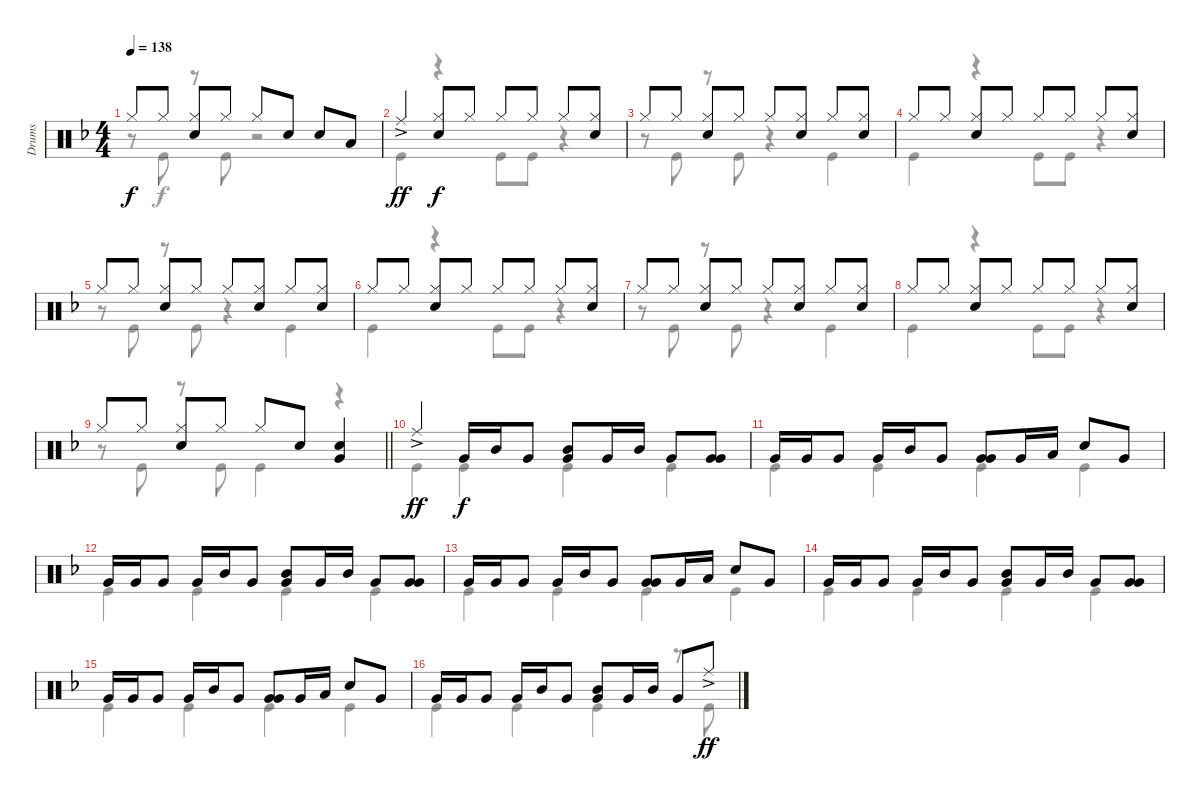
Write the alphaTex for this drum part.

\track ("Drums" "Drums") {instrument percussion}
\staff {score}
\articulation defaults
\voice
\ts (4 4)
\tempo 138
\clef neutral
\ks f "Hi-Hat (closed)".8{dy f} "Hi-Hat (closed)".8
("Hi-Hat (closed)" "Snare (hit) 2").8 "Hi-Hat (closed)".8 "Hi-Hat (closed)".8 "Snare (hit) 2".8 "Snare (hit) 2".8 "Low Tom (hit)".8 |
"Ride (middle)"{ac}.4{dy ff} ("Hi-Hat (closed)" "Snare (hit) 2").8{dy f} "Hi-Hat (closed)".8 "Hi-Hat (closed)".8 "Hi-Hat (closed)".8 "Hi-Hat (closed)".8 ("Hi-Hat (closed)" "Snare (hit) 2").8 |
"Hi-Hat (closed)".8 "Hi-Hat (closed)".8 ("Hi-Hat (closed)" "Snare (hit) 2").8 "Hi-Hat (closed)".8 "Hi-Hat (closed)".8 ("Hi-Hat (closed)" "Snare (hit) 2").8 "Hi-Hat (closed)".8 ("Hi-Hat (closed)" "Snare (hit) 2").8 |
"Hi-Hat (closed)".8 "Hi-Hat (closed)".8 ("Hi-Hat (closed)" "Snare (hit) 2").8 "Hi-Hat (closed)".8 "Hi-Hat (closed)".8 "Hi-Hat (closed)".8 "Hi-Hat (closed)".8 ("Hi-Hat (closed)" "Snare (hit) 2").8 |
"Hi-Hat (closed)".8 "Hi-Hat (closed)".8 ("Hi-Hat (closed)" "Snare (hit) 2").8 "Hi-Hat (closed)".8 "Hi-Hat (closed)".8 ("Hi-Hat (closed)" "Snare (hit) 2").8 "Hi-Hat (closed)".8 ("Hi-Hat (closed)" "Snare (hit) 2").8 |
"Hi-Hat (closed)".8 "Hi-Hat (closed)".8 ("Hi-Hat (closed)" "Snare (hit) 2").8 "Hi-Hat (closed)".8 "Hi-Hat (closed)".8 "Hi-Hat (closed)".8 "Hi-Hat (closed)".8 ("Hi-Hat (closed)" "Snare (hit) 2").8 |
"Hi-Hat (closed)".8 "Hi-Hat (closed)".8 ("Hi-Hat (closed)" "Snare (hit) 2").8 "Hi-Hat (closed)".8 "Hi-Hat (closed)".8 ("Hi-Hat (closed)" "Snare (hit) 2").8 "Hi-Hat (closed)".8 ("Hi-Hat (closed)" "Snare (hit) 2").8 |
"Hi-Hat (closed)".8 "Hi-Hat (closed)".8 ("Hi-Hat (closed)" "Snare (hit) 2").8 "Hi-Hat (closed)".8 "Hi-Hat (closed)".8 "Hi-Hat (closed)".8 "Hi-Hat (closed)".8 ("Hi-Hat (closed)" "Snare (hit) 2").8 |
\barLineRight lightlight "Hi-Hat (closed)".8 "Hi-Hat (closed)".8
("Hi-Hat (closed)" "Snare (hit) 2").8 "Hi-Hat (closed)".8 "Hi-Hat (closed)".8 "Snare (hit) 2".8 ("Snare (hit) 2" "Very Low Tom (hit)").4 |
"Ride (middle)"{ac}.4{dy ff} "Very Low Tom (hit)".16{dy f} "Mid Tom (hit)".16 "Very Low Tom (hit)".8 ("Mid Tom (hit)" "Very Low Tom (hit)").8 "Very Low Tom (hit)".16 "Mid Tom (hit)".16 "Very Low Tom (hit)".8 ("Very Low Tom (hit)" "Very Low Tom (hit)").8 |
"Very Low Tom (hit)".16 "Very Low Tom (hit)".16 "Very Low Tom (hit)".8 "Very Low Tom (hit)".16 "Mid Tom (hit)".16 "Very Low Tom (hit)".8 ("Very Low Tom (hit)" "Very Low Tom (hit)").8 "Very Low Tom (hit)".16 "Low Tom (hit)".16 "Snare (hit) 2".8 "Very Low Tom (hit)".8 |
"Very Low Tom (hit)".16 "Very Low Tom (hit)".16 "Very Low Tom (hit)".8 "Very Low Tom (hit)".16 "Mid Tom (hit)".16 "Very Low Tom (hit)".8 ("Mid Tom (hit)" "Very Low Tom (hit)").8 "Very Low Tom (hit)".16 "Mid Tom (hit)".16 "Very Low Tom (hit)".8 ("Very Low Tom (hit)" "Very Low Tom (hit)").8 |
"Very Low Tom (hit)".16 "Very Low Tom (hit)".16 "Very Low Tom (hit)".8 "Very Low Tom (hit)".16 "Mid Tom (hit)".16 "Very Low Tom (hit)".8 ("Very Low Tom (hit)" "Very Low Tom (hit)").8 "Very Low Tom (hit)".16 "Low Tom (hit)".16 "Snare (hit) 2".8 "Very Low Tom (hit)".8 |
"Very Low Tom (hit)".16 "Very Low Tom (hit)".16 "Very Low Tom (hit)".8 "Very Low Tom (hit)".16 "Mid Tom (hit)".16 "Very Low Tom (hit)".8 ("Mid Tom (hit)" "Very Low Tom (hit)").8 "Very Low Tom (hit)".16 "Mid Tom (hit)".16 "Very Low Tom (hit)".8 ("Very Low Tom (hit)" "Very Low Tom (hit)").8 |
"Very Low Tom (hit)".16 "Very Low Tom (hit)".16 "Very Low Tom (hit)".8 "Very Low Tom (hit)".16 "Mid Tom (hit)".16 "Very Low Tom (hit)".8 ("Very Low Tom (hit)" "Very Low Tom (hit)").8 "Very Low Tom (hit)".16 "Low Tom (hit)".16 "Snare (hit) 2".8 "Very Low Tom (hit)".8 |
"Very Low Tom (hit)".16 "Very Low Tom (hit)".16 "Very Low Tom (hit)".8 "Very Low Tom (hit)".16 "Mid Tom (hit)".16 "Very Low Tom (hit)".8 ("Mid Tom (hit)" "Very Low Tom (hit)").8 "Very Low Tom (hit)".16 "Mid Tom (hit)".16 "Very Low Tom (hit)".8 "Ride (middle)"{ac}.8{dy ff}
\voice
\clef neutral
\ottava regular
\simile none
\ks f
r.8{dy f} "Kick (hit)".8 r.8 "Kick (hit)".8 r.2 |
"Kick (hit)".4 r.4 "Kick (hit)".8 "Kick (hit)".8 r.4 |
r.8 "Kick (hit)".8 r.8 "Kick (hit)".8 r.4 "Kick (hit)".4 |
"Kick (hit)".4 r.4 "Kick (hit)".8 "Kick (hit)".8 r.4 |
r.8 "Kick (hit)".8 r.8 "Kick (hit)".8 r.4 "Kick (hit)".4 |
"Kick (hit)".4 r.4 "Kick (hit)".8 "Kick (hit)".8 r.4 |
r.8 "Kick (hit)".8 r.8 "Kick (hit)".8 r.4 "Kick (hit)".4 |
"Kick (hit)".4 r.4 "Kick (hit)".8 "Kick (hit)".8 r.4 |
\barLineRight lightlight
r.8 "Kick (hit)".8 r.8 "Kick (hit)".8 "Kick (hit)".4 r.4 |
"Kick (hit)".4 "Kick (hit)".4 "Kick (hit)".4 "Kick (hit)".4 |
"Kick (hit)".4 "Kick (hit)".4 "Kick (hit)".4 "Kick (hit)".4 |
"Kick (hit)".4 "Kick (hit)".4 "Kick (hit)".4 "Kick (hit)".4 |
"Kick (hit)".4 "Kick (hit)".4 "Kick (hit)".4 "Kick (hit)".4 |
"Kick (hit)".4 "Kick (hit)".4 "Kick (hit)".4 "Kick (hit)".4 |
"Kick (hit)".4 "Kick (hit)".4 "Kick (hit)".4 "Kick (hit)".4 |
"Kick (hit)".4 "Kick (hit)".4 "Kick (hit)".4 r.8 "Kick (hit)".8
